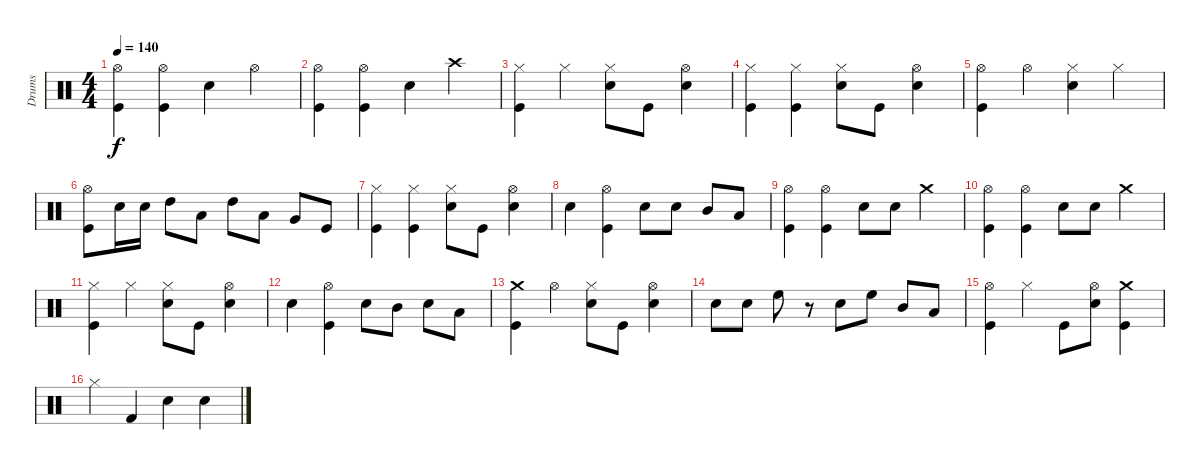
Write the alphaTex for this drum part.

\track ("Drums" "Drums") {instrument percussion}
\staff {score}
\articulation defaults
\ts (4 4)
\tempo 140
\clef neutral
\ks c
("Kick (hit)" "Hi-Hat (open)").4{dy f} ("Kick (hit)" "Hi-Hat (open)").4 "Snare (hit) 2".4 "Hi-Hat (open)".4 |
("Kick (hit)" "Hi-Hat (open)").4 ("Kick (hit)" "Hi-Hat (open)").4 "Snare (hit) 2".4 "Crash high (hit)".4 |
("Kick (hit)" "Hi-Hat (closed)").4 "Hi-Hat (closed)".4 ("Snare (hit) 2" "Hi-Hat (closed)").8 "Kick (hit)".8 ("Snare (hit) 2" "Hi-Hat (open)").4 |
("Kick (hit)" "Hi-Hat (closed)").4 ("Kick (hit)" "Hi-Hat (closed)").4 ("Snare (hit) 2" "Hi-Hat (closed)").8 "Kick (hit)".8 ("Snare (hit) 2" "Hi-Hat (open)").4 |
("Kick (hit)" "Hi-Hat (open)").4 "Hi-Hat (open)".4 ("Snare (hit) 2" "Hi-Hat (closed)").4 "Hi-Hat (closed)".4 |
("Kick (hit)" "Hi-Hat (open)").8 "Snare (hit) 2".16 "Snare (hit) 2".16 "High Tom (hit)".8 "Low Tom (hit)".8 "High Tom (hit)".8 "Low Tom (hit)".8 "Very Low Tom (hit)".8 "Kick (hit)".8 |
("Kick (hit)" "Hi-Hat (closed)").4 ("Kick (hit)" "Hi-Hat (closed)").4 ("Snare (hit) 2" "Hi-Hat (closed)").8 "Kick (hit)".8 ("Snare (hit) 2" "Hi-Hat (open)").4 |
"Snare (hit) 2".4 ("Kick (hit)" "Hi-Hat (open)").4 "Snare (hit) 2".8 "Snare (hit) 2".8 "Mid Tom (hit)".8 "Low Tom (hit)".8 |
("Kick (hit)" "Hi-Hat (open)").4 ("Kick (hit)" "Hi-Hat (open)").4 "Snare (hit) 2".8 "Snare (hit) 2".8 "Crash medium (hit)".4 |
("Kick (hit)" "Hi-Hat (open)").4 ("Kick (hit)" "Hi-Hat (open)").4 "Snare (hit) 2".8 "Snare (hit) 2".8 "Crash medium (hit)".4 |
("Kick (hit)" "Hi-Hat (closed)").4 "Hi-Hat (closed)".4 ("Snare (hit) 2" "Hi-Hat (closed)").8 "Kick (hit)".8 ("Snare (hit) 2" "Hi-Hat (open)").4 |
"Snare (hit) 2".4 ("Kick (hit)" "Hi-Hat (open)").4 "Snare (hit) 2".8 "Mid Tom (hit)".8 "Snare (hit) 2".8 "Low Tom (hit)".8 |
("Kick (hit)" "Crash medium (hit)").4 "Hi-Hat (open)".4 ("Snare (hit) 2" "Hi-Hat (closed)").8 "Kick (hit)".8 ("Snare (hit) 2" "Hi-Hat (open)").4 |
"Snare (hit) 2".8 "Snare (hit) 2".8 "High Floor Tom (hit)".8 r.8 "Snare (hit) 2".8 "High Floor Tom (hit)".8 "Mid Tom (hit)".8 "Low Tom (hit)".8 |
("Kick (hit)" "Hi-Hat (open)").4 "Hi-Hat (closed)".4 "Kick (hit)".8 ("Snare (hit) 2" "Hi-Hat (open)").8 ("Kick (hit)" "Crash medium (hit)").4 |
"Hi-Hat (closed)".4 "Kick (hit) 2".4 "Snare (hit) 2".4 "Snare (hit) 2".4
